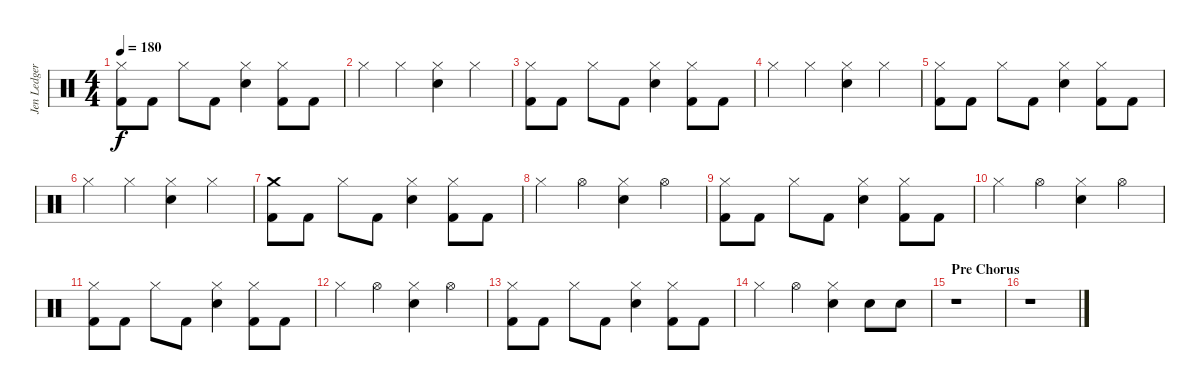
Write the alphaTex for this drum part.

\track ("Jen Ledger" "Jen Ledger") {instrument percussion}
\staff {score}
\articulation defaults
\ts (4 4)
\tempo 180
\clef neutral
\ks c
("Hi-Hat (closed)" "Kick (hit) 2").8{dy f} "Kick (hit) 2".8 "Hi-Hat (closed)".8 "Kick (hit) 2".8 ("Hi-Hat (closed)" "Electric Snare (hit)").4 ("Hi-Hat (closed)" "Kick (hit) 2").8 "Kick (hit) 2".8 |
"Hi-Hat (closed)".4 "Hi-Hat (closed)".4 ("Hi-Hat (closed)" "Electric Snare (hit)").4 "Hi-Hat (closed)".4 |
("Hi-Hat (closed)" "Kick (hit) 2").8 "Kick (hit) 2".8 "Hi-Hat (closed)".8 "Kick (hit) 2".8 ("Hi-Hat (closed)" "Electric Snare (hit)").4 ("Hi-Hat (closed)" "Kick (hit) 2").8 "Kick (hit) 2".8 |
"Hi-Hat (closed)".4 "Hi-Hat (closed)".4 ("Hi-Hat (closed)" "Electric Snare (hit)").4 "Hi-Hat (closed)".4 |
("Hi-Hat (closed)" "Kick (hit) 2").8 "Kick (hit) 2".8 "Hi-Hat (closed)".8 "Kick (hit) 2".8 ("Hi-Hat (closed)" "Electric Snare (hit)").4 ("Hi-Hat (closed)" "Kick (hit) 2").8 "Kick (hit) 2".8 |
"Hi-Hat (closed)".4 "Hi-Hat (closed)".4 ("Hi-Hat (closed)" "Electric Snare (hit)").4 "Hi-Hat (closed)".4 |
("Crash medium (hit)" "Kick (hit) 2").8 "Kick (hit) 2".8 "Hi-Hat (closed)".8 "Kick (hit) 2".8 ("Hi-Hat (closed)" "Electric Snare (hit)").4 ("Hi-Hat (closed)" "Kick (hit) 2").8 "Kick (hit) 2".8 |
"Hi-Hat (closed)".4 "Hi-Hat (open)".4 ("Hi-Hat (closed)" "Electric Snare (hit)").4 "Hi-Hat (open)".4 |
("Hi-Hat (closed)" "Kick (hit) 2").8 "Kick (hit) 2".8 "Hi-Hat (closed)".8 "Kick (hit) 2".8 ("Hi-Hat (closed)" "Electric Snare (hit)").4 ("Hi-Hat (closed)" "Kick (hit) 2").8 "Kick (hit) 2".8 |
"Hi-Hat (closed)".4 "Hi-Hat (open)".4 ("Hi-Hat (closed)" "Electric Snare (hit)").4 "Hi-Hat (open)".4 |
("Hi-Hat (closed)" "Kick (hit) 2").8 "Kick (hit) 2".8 "Hi-Hat (closed)".8 "Kick (hit) 2".8 ("Hi-Hat (closed)" "Electric Snare (hit)").4 ("Hi-Hat (closed)" "Kick (hit) 2").8 "Kick (hit) 2".8 |
"Hi-Hat (closed)".4 "Hi-Hat (open)".4 ("Hi-Hat (closed)" "Electric Snare (hit)").4 "Hi-Hat (open)".4 |
("Hi-Hat (closed)" "Kick (hit) 2").8 "Kick (hit) 2".8 "Hi-Hat (closed)".8 "Kick (hit) 2".8 ("Hi-Hat (closed)" "Electric Snare (hit)").4 ("Hi-Hat (closed)" "Kick (hit) 2").8 "Kick (hit) 2".8 |
"Hi-Hat (closed)".4 "Hi-Hat (open)".4 ("Hi-Hat (closed)" "Electric Snare (hit)").4 "Electric Snare (hit)".8 "Electric Snare (hit)".8 |
\section ("" "Pre Chorus")
r.1 |
r.1
